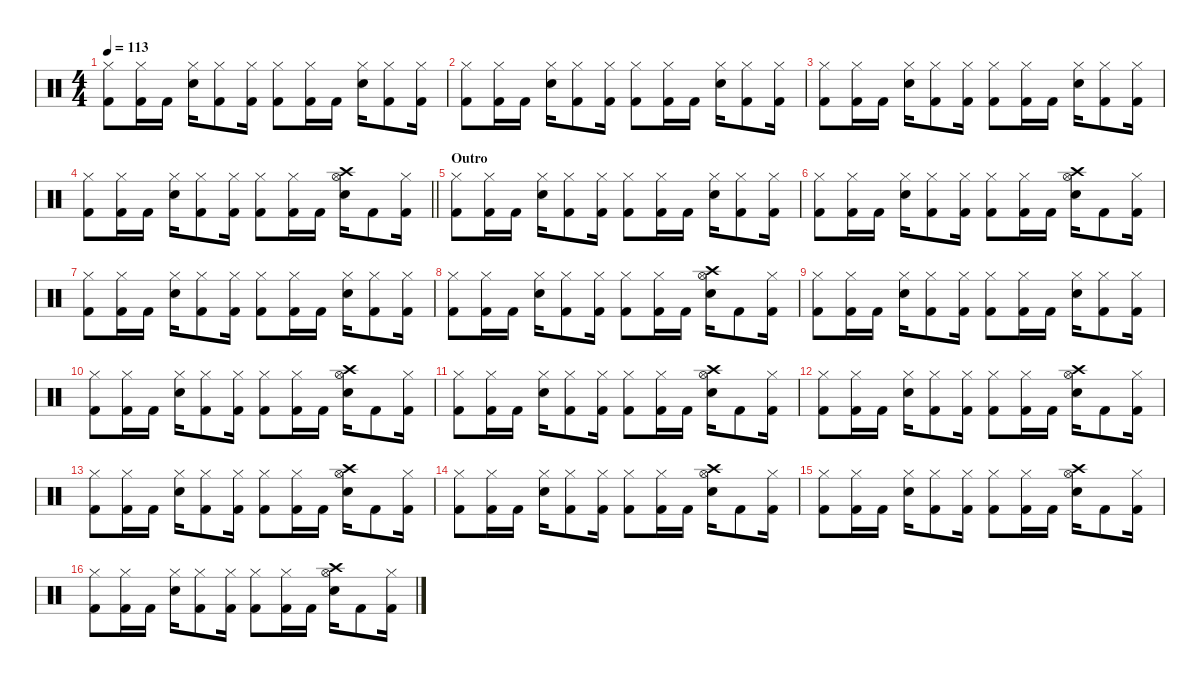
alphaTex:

\defaultSystemsLayout 4
\hideDynamics
\bracketExtendMode nobrackets
\singleTrackTrackNamePolicy hidden
\multiTrackTrackNamePolicy hidden
\firstSystemTrackNameMode fullname
\firstSystemTrackNameOrientation horizontal
\otherSystemsTrackNameOrientation horizontal
\track ("Drums" "drm.") {instrument percussion}
\staff {score}
\articulation defaults
\ts (4 4)
\tempo 113
\clef neutral
\ks c
("Hi-Hat (closed)" "Kick (hit) 2").8{dy f beam Down} ("Hi-Hat (closed)" "Kick (hit) 2").16{beam Down} "Kick (hit) 2".16{beam Down} ("Hi-Hat (closed)" "Snare (hit) 2").16{beam Down} ("Hi-Hat (closed)" "Kick (hit) 2").8{beam Down} ("Hi-Hat (closed)" "Kick (hit) 2").16{beam Down} ("Hi-Hat (closed)" "Kick (hit) 2").8{beam Down} ("Hi-Hat (closed)" "Kick (hit) 2").16{beam Down} "Kick (hit) 2".16{beam Down} ("Hi-Hat (closed)" "Snare (hit) 2").16{beam Down} ("Hi-Hat (closed)" "Kick (hit) 2").8{beam Down} ("Hi-Hat (closed)" "Kick (hit) 2").16{beam Down} |
("Hi-Hat (closed)" "Kick (hit) 2").8{beam Down} ("Hi-Hat (closed)" "Kick (hit) 2").16{beam Down} "Kick (hit) 2".16{beam Down} ("Hi-Hat (closed)" "Snare (hit) 2").16{beam Down} ("Hi-Hat (closed)" "Kick (hit) 2").8{beam Down} ("Hi-Hat (closed)" "Kick (hit) 2").16{beam Down} ("Hi-Hat (closed)" "Kick (hit) 2").8{beam Down} ("Hi-Hat (closed)" "Kick (hit) 2").16{beam Down} "Kick (hit) 2".16{beam Down} ("Hi-Hat (closed)" "Snare (hit) 2").16{beam Down} ("Hi-Hat (closed)" "Kick (hit) 2").8{beam Down} ("Hi-Hat (closed)" "Kick (hit) 2").16{beam Down} |
("Hi-Hat (closed)" "Kick (hit) 2").8{beam Down} ("Hi-Hat (closed)" "Kick (hit) 2").16{beam Down} "Kick (hit) 2".16{beam Down} ("Hi-Hat (closed)" "Snare (hit) 2").16{beam Down} ("Hi-Hat (closed)" "Kick (hit) 2").8{beam Down} ("Hi-Hat (closed)" "Kick (hit) 2").16{beam Down} ("Hi-Hat (closed)" "Kick (hit) 2").8{beam Down} ("Hi-Hat (closed)" "Kick (hit) 2").16{beam Down} "Kick (hit) 2".16{beam Down} ("Hi-Hat (closed)" "Snare (hit) 2").16{beam Down} ("Hi-Hat (closed)" "Kick (hit) 2").8{beam Down} ("Hi-Hat (closed)" "Kick (hit) 2").16{beam Down} |
\barLineRight lightlight
("Hi-Hat (closed)" "Kick (hit) 2").8{beam Down} ("Hi-Hat (closed)" "Kick (hit) 2").16{beam Down} "Kick (hit) 2".16{beam Down} ("Hi-Hat (closed)" "Snare (hit) 2").16{beam Down} ("Hi-Hat (closed)" "Kick (hit) 2").8{beam Down} ("Hi-Hat (closed)" "Kick (hit) 2").16{beam Down} ("Hi-Hat (closed)" "Kick (hit) 2").8{beam Down} ("Hi-Hat (closed)" "Kick (hit) 2").16{beam Down} "Kick (hit) 2".16{beam Down} ("Hi-Hat (open)" "Crash high (hit)" "Snare (hit) 2").16{beam Down} "Kick (hit) 2".8{beam Down} ("Hi-Hat (closed)" "Kick (hit) 2").16{beam Down} |
\section ("" "Outro")
("Hi-Hat (closed)" "Kick (hit) 2").8{beam Down} ("Hi-Hat (closed)" "Kick (hit) 2").16{beam Down} "Kick (hit) 2".16{beam Down} ("Hi-Hat (closed)" "Snare (hit) 2").16{beam Down} ("Hi-Hat (closed)" "Kick (hit) 2").8{beam Down} ("Hi-Hat (closed)" "Kick (hit) 2").16{beam Down} ("Hi-Hat (closed)" "Kick (hit) 2").8{beam Down} ("Hi-Hat (closed)" "Kick (hit) 2").16{beam Down} "Kick (hit) 2".16{beam Down} ("Hi-Hat (closed)" "Snare (hit) 2").16{beam Down} ("Hi-Hat (closed)" "Kick (hit) 2").8{beam Down} ("Hi-Hat (closed)" "Kick (hit) 2").16{beam Down} |
("Hi-Hat (closed)" "Kick (hit) 2").8{beam Down} ("Hi-Hat (closed)" "Kick (hit) 2").16{beam Down} "Kick (hit) 2".16{beam Down} ("Hi-Hat (closed)" "Snare (hit) 2").16{beam Down} ("Hi-Hat (closed)" "Kick (hit) 2").8{beam Down} ("Hi-Hat (closed)" "Kick (hit) 2").16{beam Down} ("Hi-Hat (closed)" "Kick (hit) 2").8{beam Down} ("Hi-Hat (closed)" "Kick (hit) 2").16{beam Down} "Kick (hit) 2".16{beam Down} ("Hi-Hat (open)" "Crash high (hit)" "Snare (hit) 2").16{beam Down} "Kick (hit) 2".8{beam Down} ("Hi-Hat (closed)" "Kick (hit) 2").16{beam Down} |
("Hi-Hat (closed)" "Kick (hit) 2").8{beam Down} ("Hi-Hat (closed)" "Kick (hit) 2").16{beam Down} "Kick (hit) 2".16{beam Down} ("Hi-Hat (closed)" "Snare (hit) 2").16{beam Down} ("Hi-Hat (closed)" "Kick (hit) 2").8{beam Down} ("Hi-Hat (closed)" "Kick (hit) 2").16{beam Down} ("Hi-Hat (closed)" "Kick (hit) 2").8{beam Down} ("Hi-Hat (closed)" "Kick (hit) 2").16{beam Down} "Kick (hit) 2".16{beam Down} ("Hi-Hat (closed)" "Snare (hit) 2").16{beam Down} ("Hi-Hat (closed)" "Kick (hit) 2").8{beam Down} ("Hi-Hat (closed)" "Kick (hit) 2").16{beam Down} |
("Hi-Hat (closed)" "Kick (hit) 2").8{beam Down} ("Hi-Hat (closed)" "Kick (hit) 2").16{beam Down} "Kick (hit) 2".16{beam Down} ("Hi-Hat (closed)" "Snare (hit) 2").16{beam Down} ("Hi-Hat (closed)" "Kick (hit) 2").8{beam Down} ("Hi-Hat (closed)" "Kick (hit) 2").16{beam Down} ("Hi-Hat (closed)" "Kick (hit) 2").8{beam Down} ("Hi-Hat (closed)" "Kick (hit) 2").16{beam Down} "Kick (hit) 2".16{beam Down} ("Hi-Hat (open)" "Crash high (hit)" "Snare (hit) 2").16{beam Down} "Kick (hit) 2".8{beam Down} ("Hi-Hat (closed)" "Kick (hit) 2").16{beam Down} |
("Hi-Hat (closed)" "Kick (hit) 2").8{beam Down} ("Hi-Hat (closed)" "Kick (hit) 2").16{beam Down} "Kick (hit) 2".16{beam Down} ("Hi-Hat (closed)" "Snare (hit) 2").16{beam Down} ("Hi-Hat (closed)" "Kick (hit) 2").8{beam Down} ("Hi-Hat (closed)" "Kick (hit) 2").16{beam Down} ("Hi-Hat (closed)" "Kick (hit) 2").8{beam Down} ("Hi-Hat (closed)" "Kick (hit) 2").16{beam Down} "Kick (hit) 2".16{beam Down} ("Hi-Hat (closed)" "Snare (hit) 2").16{beam Down} ("Hi-Hat (closed)" "Kick (hit) 2").8{beam Down} ("Hi-Hat (closed)" "Kick (hit) 2").16{beam Down} |
("Hi-Hat (closed)" "Kick (hit) 2").8{beam Down} ("Hi-Hat (closed)" "Kick (hit) 2").16{beam Down} "Kick (hit) 2".16{beam Down} ("Hi-Hat (closed)" "Snare (hit) 2").16{beam Down} ("Hi-Hat (closed)" "Kick (hit) 2").8{beam Down} ("Hi-Hat (closed)" "Kick (hit) 2").16{beam Down} ("Hi-Hat (closed)" "Kick (hit) 2").8{beam Down} ("Hi-Hat (closed)" "Kick (hit) 2").16{beam Down} "Kick (hit) 2".16{beam Down} ("Hi-Hat (open)" "Crash high (hit)" "Snare (hit) 2").16{beam Down} "Kick (hit) 2".8{beam Down} ("Hi-Hat (closed)" "Kick (hit) 2").16{beam Down} |
("Hi-Hat (closed)" "Kick (hit) 2").8{beam Down} ("Hi-Hat (closed)" "Kick (hit) 2").16{beam Down} "Kick (hit) 2".16{beam Down} ("Hi-Hat (closed)" "Snare (hit) 2").16{beam Down} ("Hi-Hat (closed)" "Kick (hit) 2").8{beam Down} ("Hi-Hat (closed)" "Kick (hit) 2").16{beam Down} ("Hi-Hat (closed)" "Kick (hit) 2").8{beam Down} ("Hi-Hat (closed)" "Kick (hit) 2").16{beam Down} "Kick (hit) 2".16{beam Down} ("Hi-Hat (open)" "Crash high (hit)" "Snare (hit) 2").16{beam Down} "Kick (hit) 2".8{beam Down} ("Hi-Hat (closed)" "Kick (hit) 2").16{beam Down} |
("Hi-Hat (closed)" "Kick (hit) 2").8{beam Down} ("Hi-Hat (closed)" "Kick (hit) 2").16{beam Down} "Kick (hit) 2".16{beam Down} ("Hi-Hat (closed)" "Snare (hit) 2").16{beam Down} ("Hi-Hat (closed)" "Kick (hit) 2").8{beam Down} ("Hi-Hat (closed)" "Kick (hit) 2").16{beam Down} ("Hi-Hat (closed)" "Kick (hit) 2").8{beam Down} ("Hi-Hat (closed)" "Kick (hit) 2").16{beam Down} "Kick (hit) 2".16{beam Down} ("Hi-Hat (open)" "Crash high (hit)" "Snare (hit) 2").16{beam Down} "Kick (hit) 2".8{beam Down} ("Hi-Hat (closed)" "Kick (hit) 2").16{beam Down} |
("Hi-Hat (closed)" "Kick (hit) 2").8{beam Down} ("Hi-Hat (closed)" "Kick (hit) 2").16{beam Down} "Kick (hit) 2".16{beam Down} ("Hi-Hat (closed)" "Snare (hit) 2").16{beam Down} ("Hi-Hat (closed)" "Kick (hit) 2").8{beam Down} ("Hi-Hat (closed)" "Kick (hit) 2").16{beam Down} ("Hi-Hat (closed)" "Kick (hit) 2").8{beam Down} ("Hi-Hat (closed)" "Kick (hit) 2").16{beam Down} "Kick (hit) 2".16{beam Down} ("Hi-Hat (open)" "Crash high (hit)" "Snare (hit) 2").16{beam Down} "Kick (hit) 2".8{beam Down} ("Hi-Hat (closed)" "Kick (hit) 2").16{beam Down} |
("Hi-Hat (closed)" "Kick (hit) 2").8{beam Down} ("Hi-Hat (closed)" "Kick (hit) 2").16{beam Down} "Kick (hit) 2".16{beam Down} ("Hi-Hat (closed)" "Snare (hit) 2").16{beam Down} ("Hi-Hat (closed)" "Kick (hit) 2").8{beam Down} ("Hi-Hat (closed)" "Kick (hit) 2").16{beam Down} ("Hi-Hat (closed)" "Kick (hit) 2").8{beam Down} ("Hi-Hat (closed)" "Kick (hit) 2").16{beam Down} "Kick (hit) 2".16{beam Down} ("Hi-Hat (open)" "Crash high (hit)" "Snare (hit) 2").16{beam Down} "Kick (hit) 2".8{beam Down} ("Hi-Hat (closed)" "Kick (hit) 2").16{beam Down} |
("Hi-Hat (closed)" "Kick (hit) 2").8{beam Down} ("Hi-Hat (closed)" "Kick (hit) 2").16{beam Down} "Kick (hit) 2".16{beam Down} ("Hi-Hat (closed)" "Snare (hit) 2").16{beam Down} ("Hi-Hat (closed)" "Kick (hit) 2").8{beam Down} ("Hi-Hat (closed)" "Kick (hit) 2").16{beam Down} ("Hi-Hat (closed)" "Kick (hit) 2").8{beam Down} ("Hi-Hat (closed)" "Kick (hit) 2").16{beam Down} "Kick (hit) 2".16{beam Down} ("Hi-Hat (open)" "Crash high (hit)" "Snare (hit) 2").16{beam Down} "Kick (hit) 2".8{beam Down} ("Hi-Hat (closed)" "Kick (hit) 2").16{beam Down} |
("Hi-Hat (closed)" "Kick (hit) 2").8{beam Down} ("Hi-Hat (closed)" "Kick (hit) 2").16{beam Down} "Kick (hit) 2".16{beam Down} ("Hi-Hat (closed)" "Snare (hit) 2").16{beam Down} ("Hi-Hat (closed)" "Kick (hit) 2").8{beam Down} ("Hi-Hat (closed)" "Kick (hit) 2").16{beam Down} ("Hi-Hat (closed)" "Kick (hit) 2").8{beam Down} ("Hi-Hat (closed)" "Kick (hit) 2").16{beam Down} "Kick (hit) 2".16{beam Down} ("Hi-Hat (open)" "Crash high (hit)" "Snare (hit) 2").16{beam Down} "Kick (hit) 2".8{beam Down} ("Hi-Hat (closed)" "Kick (hit) 2").16{beam Down}
